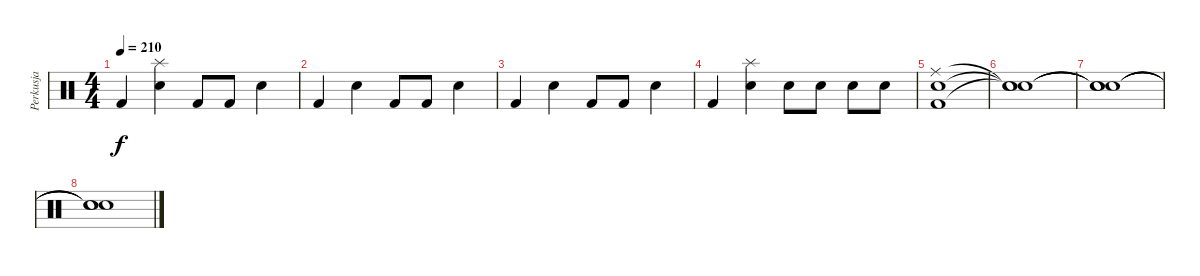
\track ("Perkusja" "Perkusja") {instrument percussion}
\staff {score}
\articulation defaults
\ts (4 4)
\tempo 210
\clef neutral
\ks c "Kick (hit) 2".4{dy f}
("Snare (hit) 2" "Splash (hit)").4 "Kick (hit) 2".8 "Kick (hit) 2".8 "Snare (hit) 2".4 |
"Kick (hit) 2".4 "Snare (hit) 2".4 "Kick (hit) 2".8 "Kick (hit) 2".8 "Snare (hit) 2".4 |
"Kick (hit) 2".4 "Snare (hit) 2".4 "Kick (hit) 2".8 "Kick (hit) 2".8 "Snare (hit) 2".4 |
"Kick (hit) 2".4 ("Snare (hit) 2" "Splash (hit)").4 "Snare (hit) 2".8 "Snare (hit) 2".8 "Snare (hit) 2".8 "Snare (hit) 2".8 |
("Kick (hit) 2" "Snare (hit) 2" "Ride (middle)").1 |
("Snare (hit)"{t} "Snare (hit)"{t} "Snare (hit)"{t}).1 |
("Snare (hit)"{t} "Snare (hit)"{t} "Snare (hit)"{t}).1 |
("Snare (hit)"{t} "Snare (hit)"{t} "Snare (hit)"{t}).1
